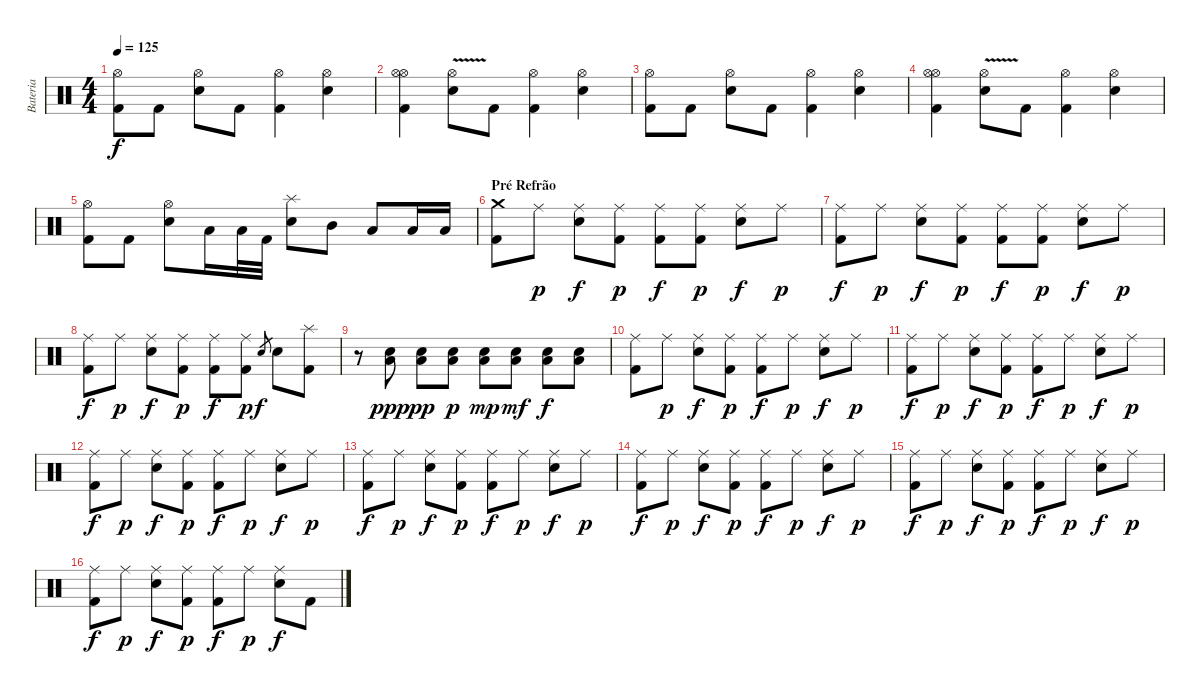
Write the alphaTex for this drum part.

\track ("Bateria" "Bateria") {instrument percussion}
\staff {score}
\articulation defaults
\ts (4 4)
\tempo 125
\clef neutral
\ks c
("Hi-Hat (open)" "Kick (hit) 2").8{dy f} "Kick (hit) 2".8 ("Hi-Hat (open)" "Electric Snare (hit)").8 "Kick (hit) 2".8 ("Hi-Hat (open)" "Kick (hit) 2").4 ("Electric Snare (hit)" "Hi-Hat (open)").4 |
("Hi-Hat (open)" "Hi-Hat (open)" "Kick (hit) 2").4 ("Hi-Hat (open)"{v} "Electric Snare (hit)").8 "Kick (hit) 2".8 ("Hi-Hat (open)" "Kick (hit) 2").4 ("Electric Snare (hit)" "Hi-Hat (open)").4 |
("Hi-Hat (open)" "Kick (hit) 2").8 "Kick (hit) 2".8 ("Hi-Hat (open)" "Electric Snare (hit)").8 "Kick (hit) 2".8 ("Hi-Hat (open)" "Kick (hit) 2").4 ("Electric Snare (hit)" "Hi-Hat (open)").4 |
("Hi-Hat (open)" "Hi-Hat (open)" "Kick (hit) 2").4 ("Hi-Hat (open)"{v} "Electric Snare (hit)").8 "Kick (hit) 2".8 ("Hi-Hat (open)" "Kick (hit) 2").4 ("Electric Snare (hit)" "Hi-Hat (open)").4 |
("Hi-Hat (open)" "Kick (hit) 2").8 "Kick (hit) 2".8 ("Hi-Hat (open)" "Electric Snare (hit)").8 "Low Tom (hit)".16 "Low Tom (hit)".32 "Kick (hit) 2".32 ("Splash (hit)" "Electric Snare (hit)").8 "Mid Tom (hit)".8 "Low Tom (hit)".8 "Low Floor Tom (hit)".16 "Low Floor Tom (hit)".16 |
\section ("" "Pré Refrão")
("Crash medium (hit)" "Kick (hit) 2").8 "Ride (middle)".8{dy p} ("Ride (middle)" "Electric Snare (hit)").8{dy f} ("Ride (middle)" "Kick (hit) 2").8{dy p} ("Ride (middle)" "Kick (hit) 2").8{dy f} ("Ride (middle)" "Kick (hit) 2").8{dy p} ("Ride (middle)" "Electric Snare (hit)").8{dy f} "Ride (middle)".8{dy p} |
("Ride (middle)" "Kick (hit) 2").8{dy f} "Ride (middle)".8{dy p} ("Ride (middle)" "Electric Snare (hit)").8{dy f} ("Ride (middle)" "Kick (hit) 2").8{dy p} ("Ride (middle)" "Kick (hit) 2").8{dy f} ("Ride (middle)" "Kick (hit) 2").8{dy p} ("Ride (middle)" "Electric Snare (hit)").8{dy f} "Ride (middle)".8{dy p} |
("Ride (middle)" "Kick (hit) 2").8{dy f} "Ride (middle)".8{dy p} ("Ride (middle)" "Electric Snare (hit)").8{dy f} ("Ride (middle)" "Kick (hit) 2").8{dy p} ("Ride (middle)" "Kick (hit) 2").8{dy f} ("Ride (middle)" "Kick (hit) 2").8{dy p} "Electric Snare (hit)".8{gr dy f} "Electric Snare (hit)".8 ("Splash (hit)" "Kick (hit) 2").8 |
r.8 ("Snare (hit)" "Low Floor Tom (hit)").8{dy ppp} ("Electric Snare (hit)" "Low Floor Tom (hit)").8{dy pp} ("Electric Snare (hit)" "Low Floor Tom (hit)").8{dy p} ("Electric Snare (hit)" "Low Floor Tom (hit)").8{dy mp} ("Electric Snare (hit)" "Low Floor Tom (hit)").8{dy mf} ("Electric Snare (hit)" "Low Floor Tom (hit)").8{dy f} ("Electric Snare (hit)" "Low Floor Tom (hit)").8 |
("Ride (middle)" "Kick (hit) 2").8 "Ride (middle)".8{dy p} ("Ride (middle)" "Electric Snare (hit)").8{dy f} ("Ride (middle)" "Kick (hit) 2").8{dy p} ("Ride (middle)" "Kick (hit) 2").8{dy f} "Ride (middle)".8{dy p} ("Ride (middle)" "Electric Snare (hit)").8{dy f} "Ride (middle)".8{dy p} |
("Ride (middle)" "Kick (hit) 2").8{dy f} "Ride (middle)".8{dy p} ("Ride (middle)" "Electric Snare (hit)").8{dy f} ("Ride (middle)" "Kick (hit) 2").8{dy p} ("Ride (middle)" "Kick (hit) 2").8{dy f} "Ride (middle)".8{dy p} ("Ride (middle)" "Electric Snare (hit)").8{dy f} "Ride (middle)".8{dy p} |
("Ride (middle)" "Kick (hit) 2").8{dy f} "Ride (middle)".8{dy p} ("Ride (middle)" "Electric Snare (hit)").8{dy f} ("Ride (middle)" "Kick (hit) 2").8{dy p} ("Ride (middle)" "Kick (hit) 2").8{dy f} "Ride (middle)".8{dy p} ("Ride (middle)" "Electric Snare (hit)").8{dy f} "Ride (middle)".8{dy p} |
("Ride (middle)" "Kick (hit) 2").8{dy f} "Ride (middle)".8{dy p} ("Ride (middle)" "Electric Snare (hit)").8{dy f} ("Ride (middle)" "Kick (hit) 2").8{dy p} ("Ride (middle)" "Kick (hit) 2").8{dy f} "Ride (middle)".8{dy p} ("Ride (middle)" "Electric Snare (hit)").8{dy f} "Ride (middle)".8{dy p} |
("Ride (middle)" "Kick (hit) 2").8{dy f} "Ride (middle)".8{dy p} ("Ride (middle)" "Electric Snare (hit)").8{dy f} ("Ride (middle)" "Kick (hit) 2").8{dy p} ("Ride (middle)" "Kick (hit) 2").8{dy f} "Ride (middle)".8{dy p} ("Ride (middle)" "Electric Snare (hit)").8{dy f} "Ride (middle)".8{dy p} |
("Ride (middle)" "Kick (hit) 2").8{dy f} "Ride (middle)".8{dy p} ("Ride (middle)" "Electric Snare (hit)").8{dy f} ("Ride (middle)" "Kick (hit) 2").8{dy p} ("Ride (middle)" "Kick (hit) 2").8{dy f} "Ride (middle)".8{dy p} ("Ride (middle)" "Electric Snare (hit)").8{dy f} "Ride (middle)".8{dy p} |
("Ride (middle)" "Kick (hit) 2").8{dy f} "Ride (middle)".8{dy p} ("Ride (middle)" "Electric Snare (hit)").8{dy f} ("Ride (middle)" "Kick (hit) 2").8{dy p} ("Ride (middle)" "Kick (hit) 2").8{dy f} "Ride (middle)".8{dy p} ("Ride (middle)" "Electric Snare (hit)").8{dy f} "Kick (hit) 2".8
